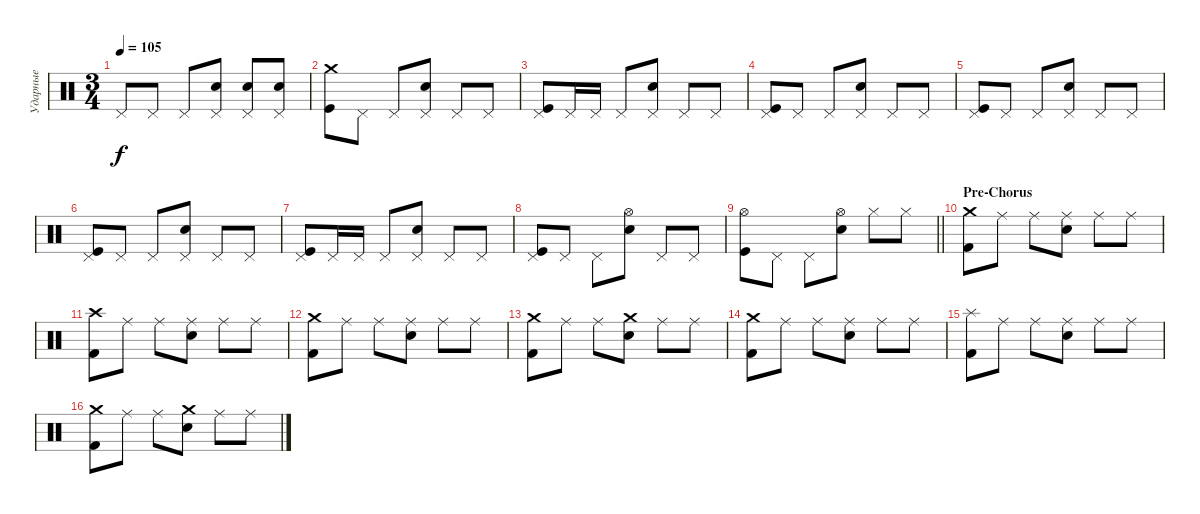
\track ("Ударные" "Ударные") {instrument percussion}
\staff {score}
\articulation defaults
\ts (3 4)
\tempo 105
\clef neutral
\ks c "Pedal Hi-Hat (hit)".8{dy f} "Pedal Hi-Hat (hit)".8 "Pedal Hi-Hat (hit)".8
("Pedal Hi-Hat (hit)" "Electric Snare (hit)").8 ("Pedal Hi-Hat (hit)" "Electric Snare (hit)").8 ("Pedal Hi-Hat (hit)" "Electric Snare (hit)").8 |
("Crash medium (hit)" "Kick (hit)").8 "Pedal Hi-Hat (hit)".8 "Pedal Hi-Hat (hit)".8 ("Pedal Hi-Hat (hit)" "Electric Snare (hit)").8 "Pedal Hi-Hat (hit)".8 "Pedal Hi-Hat (hit)".8 |
("Pedal Hi-Hat (hit)" "Kick (hit)").8 "Pedal Hi-Hat (hit)".16 "Pedal Hi-Hat (hit)".16 "Pedal Hi-Hat (hit)".8 ("Pedal Hi-Hat (hit)" "Electric Snare (hit)").8 "Pedal Hi-Hat (hit)".8 "Pedal Hi-Hat (hit)".8 |
("Pedal Hi-Hat (hit)" "Kick (hit)").8 "Pedal Hi-Hat (hit)".8 "Pedal Hi-Hat (hit)".8 ("Pedal Hi-Hat (hit)" "Electric Snare (hit)").8 "Pedal Hi-Hat (hit)".8 "Pedal Hi-Hat (hit)".8 |
("Pedal Hi-Hat (hit)" "Kick (hit)").8 "Pedal Hi-Hat (hit)".8 "Pedal Hi-Hat (hit)".8 ("Pedal Hi-Hat (hit)" "Electric Snare (hit)").8 "Pedal Hi-Hat (hit)".8 "Pedal Hi-Hat (hit)".8 |
("Pedal Hi-Hat (hit)" "Kick (hit)").8 "Pedal Hi-Hat (hit)".8 "Pedal Hi-Hat (hit)".8 ("Pedal Hi-Hat (hit)" "Electric Snare (hit)").8 "Pedal Hi-Hat (hit)".8 "Pedal Hi-Hat (hit)".8 |
("Pedal Hi-Hat (hit)" "Kick (hit)").8 "Pedal Hi-Hat (hit)".16 "Pedal Hi-Hat (hit)".16 "Pedal Hi-Hat (hit)".8 ("Pedal Hi-Hat (hit)" "Electric Snare (hit)").8 "Pedal Hi-Hat (hit)".8 "Pedal Hi-Hat (hit)".8 |
("Pedal Hi-Hat (hit)" "Kick (hit)").8 "Pedal Hi-Hat (hit)".8 "Pedal Hi-Hat (hit)".8 ("Hi-Hat (open)" "Electric Snare (hit)").8 "Pedal Hi-Hat (hit)".8 "Pedal Hi-Hat (hit)".8 |
\barLineRight lightlight
("Hi-Hat (open)" "Kick (hit)").8 "Pedal Hi-Hat (hit)".8 "Pedal Hi-Hat (hit)".8 ("Hi-Hat (open)" "Electric Snare (hit)").8 "Hi-Hat (closed)".8 "Hi-Hat (closed)".8 |
\section ("" "Pre-Chorus")
("Crash medium (hit)" "Kick (hit) 2").8 "Ride (middle)".8 "Ride (middle)".8 ("Ride (middle)" "Electric Snare (hit)").8 "Ride (middle)".8 "Ride (middle)".8 |
("Crash high (hit)" "Kick (hit) 2").8 "Ride (middle)".8 "Ride (middle)".8 ("Ride (middle)" "Electric Snare (hit)").8 "Ride (middle)".8 "Ride (middle)".8 |
("Crash medium (hit)" "Kick (hit) 2").8 "Ride (middle)".8 "Ride (middle)".8 ("Ride (middle)" "Electric Snare (hit)").8 "Ride (middle)".8 "Ride (middle)".8 |
("Crash medium (hit)" "Kick (hit) 2").8 "Ride (middle)".8 "Ride (middle)".8 ("Crash medium (hit)" "Electric Snare (hit)").8 "Ride (middle)".8 "Ride (middle)".8 |
("Crash medium (hit)" "Kick (hit) 2").8 "Ride (middle)".8 "Ride (middle)".8 ("Ride (middle)" "Electric Snare (hit)").8 "Ride (middle)".8 "Ride (middle)".8 |
("Splash (hit)" "Kick (hit) 2").8 "Ride (middle)".8 "Ride (middle)".8 ("Ride (middle)" "Electric Snare (hit)").8 "Ride (middle)".8 "Ride (middle)".8 |
("Crash medium (hit)" "Kick (hit) 2").8 "Ride (middle)".8 "Ride (middle)".8 ("Crash medium (hit)" "Electric Snare (hit)").8 "Ride (middle)".8 "Ride (middle)".8
